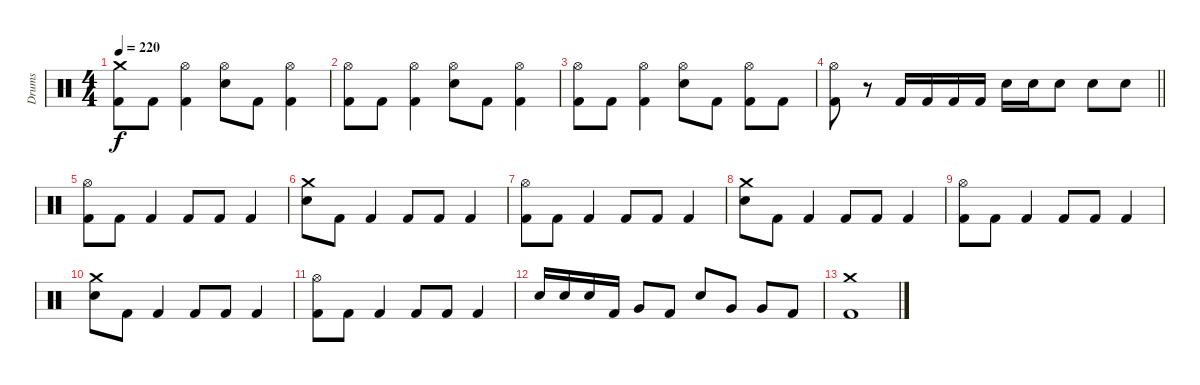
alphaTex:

\track ("Drums" "Drums") {instrument percussion}
\staff {score}
\articulation defaults
\ts (4 4)
\tempo 220
\clef neutral
\ks c
("Crash medium (hit)" "Kick (hit) 2").8{dy f} "Kick (hit) 2".8 ("Hi-Hat (open)" "Kick (hit) 2").4 ("Hi-Hat (open)" "Electric Snare (hit)").8 "Kick (hit) 2".8 ("Hi-Hat (open)" "Kick (hit) 2").4 |
("Hi-Hat (open)" "Kick (hit) 2").8 "Kick (hit) 2".8 ("Hi-Hat (open)" "Kick (hit) 2").4 ("Hi-Hat (open)" "Electric Snare (hit)").8 "Kick (hit) 2".8 ("Hi-Hat (open)" "Kick (hit) 2").4 |
("Hi-Hat (open)" "Kick (hit) 2").8 "Kick (hit) 2".8 ("Hi-Hat (open)" "Kick (hit) 2").4 ("Hi-Hat (open)" "Electric Snare (hit)").8 "Kick (hit) 2".8 ("Hi-Hat (open)" "Kick (hit) 2").8 "Kick (hit) 2".8 |
\barLineRight lightlight
("Hi-Hat (open)" "Kick (hit) 2").8 r.8 "Kick (hit) 2".16 "Kick (hit) 2".16 "Kick (hit) 2".16 "Kick (hit) 2".16 "Electric Snare (hit)".16 "Electric Snare (hit)".16 "Electric Snare (hit)".8 "Electric Snare (hit)".8 "Electric Snare (hit)".8 |
("Hi-Hat (open)" "Kick (hit) 2").8 "Kick (hit) 2".8 "Kick (hit) 2".4 "Kick (hit) 2".8 "Kick (hit) 2".8 "Kick (hit) 2".4 |
("Crash medium (hit)" "Electric Snare (hit)").8 "Kick (hit) 2".8 "Kick (hit) 2".4 "Kick (hit) 2".8 "Kick (hit) 2".8 "Kick (hit) 2".4 |
("Hi-Hat (open)" "Kick (hit) 2").8 "Kick (hit) 2".8 "Kick (hit) 2".4 "Kick (hit) 2".8 "Kick (hit) 2".8 "Kick (hit) 2".4 |
("Crash medium (hit)" "Electric Snare (hit)").8 "Kick (hit) 2".8 "Kick (hit) 2".4 "Kick (hit) 2".8 "Kick (hit) 2".8 "Kick (hit) 2".4 |
("Hi-Hat (open)" "Kick (hit) 2").8 "Kick (hit) 2".8 "Kick (hit) 2".4 "Kick (hit) 2".8 "Kick (hit) 2".8 "Kick (hit) 2".4 |
("Crash medium (hit)" "Electric Snare (hit)").8 "Kick (hit) 2".8 "Kick (hit) 2".4 "Kick (hit) 2".8 "Kick (hit) 2".8 "Kick (hit) 2".4 |
("Hi-Hat (open)" "Kick (hit) 2").8 "Kick (hit) 2".8 "Kick (hit) 2".4 "Kick (hit) 2".8 "Kick (hit) 2".8 "Kick (hit) 2".4 |
"Electric Snare (hit)".16 "Electric Snare (hit)".16 "Electric Snare (hit)".16 "Kick (hit) 2".16 "Very Low Tom (hit)".8 "Kick (hit) 2".8 "Electric Snare (hit)".8 "Very Low Tom (hit)".8 "Very Low Tom (hit)".8 "Kick (hit) 2".8 |
("Crash medium (hit)" "Kick (hit) 2").1
